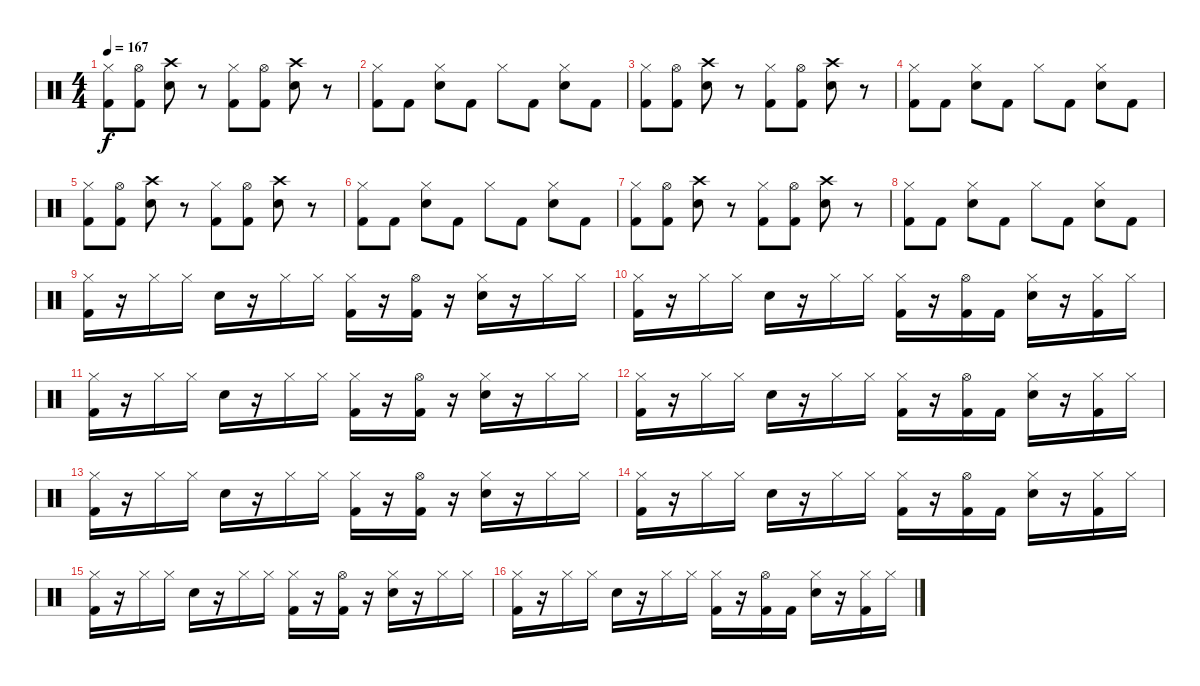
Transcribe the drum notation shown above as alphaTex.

\track "" {instrument percussion}
\staff {score}
\articulation defaults
\ts (4 4)
\tempo 167
\clef neutral
\ks c
("Hi-Hat (closed)" "Kick (hit) 2").8{dy f} ("Hi-Hat (open)" "Kick (hit) 2").8 ("Electric Snare (hit)" "Crash high (hit)").8 r.8 ("Hi-Hat (closed)" "Kick (hit) 2").8 ("Hi-Hat (open)" "Kick (hit) 2").8 ("Electric Snare (hit)" "Crash high (hit)").8 r.8 |
("Hi-Hat (closed)" "Kick (hit) 2").8 "Kick (hit) 2".8 ("Hi-Hat (closed)" "Electric Snare (hit)").8 "Kick (hit) 2".8 "Hi-Hat (closed)".8 "Kick (hit) 2".8 ("Hi-Hat (closed)" "Electric Snare (hit)").8 "Kick (hit) 2".8 |
("Hi-Hat (closed)" "Kick (hit) 2").8 ("Hi-Hat (open)" "Kick (hit) 2").8 ("Electric Snare (hit)" "Crash high (hit)").8 r.8 ("Hi-Hat (closed)" "Kick (hit) 2").8 ("Hi-Hat (open)" "Kick (hit) 2").8 ("Electric Snare (hit)" "Crash high (hit)").8 r.8 |
("Hi-Hat (closed)" "Kick (hit) 2").8 "Kick (hit) 2".8 ("Hi-Hat (closed)" "Electric Snare (hit)").8 "Kick (hit) 2".8 "Hi-Hat (closed)".8 "Kick (hit) 2".8 ("Hi-Hat (closed)" "Electric Snare (hit)").8 "Kick (hit) 2".8 |
("Hi-Hat (closed)" "Kick (hit) 2").8 ("Hi-Hat (open)" "Kick (hit) 2").8 ("Electric Snare (hit)" "Crash high (hit)").8 r.8 ("Hi-Hat (closed)" "Kick (hit) 2").8 ("Hi-Hat (open)" "Kick (hit) 2").8 ("Electric Snare (hit)" "Crash high (hit)").8 r.8 |
("Hi-Hat (closed)" "Kick (hit) 2").8 "Kick (hit) 2".8 ("Hi-Hat (closed)" "Electric Snare (hit)").8 "Kick (hit) 2".8 "Hi-Hat (closed)".8 "Kick (hit) 2".8 ("Hi-Hat (closed)" "Electric Snare (hit)").8 "Kick (hit) 2".8 |
("Hi-Hat (closed)" "Kick (hit) 2").8 ("Hi-Hat (open)" "Kick (hit) 2").8 ("Electric Snare (hit)" "Crash high (hit)").8 r.8 ("Hi-Hat (closed)" "Kick (hit) 2").8 ("Hi-Hat (open)" "Kick (hit) 2").8 ("Electric Snare (hit)" "Crash high (hit)").8 r.8 |
("Hi-Hat (closed)" "Kick (hit) 2").8 "Kick (hit) 2".8 ("Hi-Hat (closed)" "Electric Snare (hit)").8 "Kick (hit) 2".8 "Hi-Hat (closed)".8 "Kick (hit) 2".8 ("Hi-Hat (closed)" "Electric Snare (hit)").8 "Kick (hit) 2".8 |
("Hi-Hat (closed)" "Kick (hit) 2").16 r.16 "Hi-Hat (closed)".16 "Hi-Hat (closed)".16 "Electric Snare (hit)".16 r.16 "Hi-Hat (closed)".16 "Hi-Hat (closed)".16 ("Hi-Hat (closed)" "Kick (hit) 2").16 r.16 ("Hi-Hat (open)" "Kick (hit) 2").16 r.16 ("Hi-Hat (closed)" "Electric Snare (hit)").16 r.16 "Hi-Hat (closed)".16 "Hi-Hat (closed)".16 |
("Hi-Hat (closed)" "Kick (hit) 2").16 r.16 "Hi-Hat (closed)".16 "Hi-Hat (closed)".16 "Electric Snare (hit)".16 r.16 "Hi-Hat (closed)".16 "Hi-Hat (closed)".16 ("Hi-Hat (closed)" "Kick (hit) 2").16 r.16 ("Hi-Hat (open)" "Kick (hit) 2").16 "Kick (hit) 2".16 ("Hi-Hat (closed)" "Electric Snare (hit)").16 r.16 ("Hi-Hat (closed)" "Kick (hit) 2").16 "Hi-Hat (closed)".16 |
("Hi-Hat (closed)" "Kick (hit) 2").16 r.16 "Hi-Hat (closed)".16 "Hi-Hat (closed)".16 "Electric Snare (hit)".16 r.16 "Hi-Hat (closed)".16 "Hi-Hat (closed)".16 ("Hi-Hat (closed)" "Kick (hit) 2").16 r.16 ("Hi-Hat (open)" "Kick (hit) 2").16 r.16 ("Hi-Hat (closed)" "Electric Snare (hit)").16 r.16 "Hi-Hat (closed)".16 "Hi-Hat (closed)".16 |
("Hi-Hat (closed)" "Kick (hit) 2").16 r.16 "Hi-Hat (closed)".16 "Hi-Hat (closed)".16 "Electric Snare (hit)".16 r.16 "Hi-Hat (closed)".16 "Hi-Hat (closed)".16 ("Hi-Hat (closed)" "Kick (hit) 2").16 r.16 ("Hi-Hat (open)" "Kick (hit) 2").16 "Kick (hit) 2".16 ("Hi-Hat (closed)" "Electric Snare (hit)").16 r.16 ("Hi-Hat (closed)" "Kick (hit) 2").16 "Hi-Hat (closed)".16 |
("Hi-Hat (closed)" "Kick (hit) 2").16 r.16 "Hi-Hat (closed)".16 "Hi-Hat (closed)".16 "Electric Snare (hit)".16 r.16 "Hi-Hat (closed)".16 "Hi-Hat (closed)".16 ("Hi-Hat (closed)" "Kick (hit) 2").16 r.16 ("Hi-Hat (open)" "Kick (hit) 2").16 r.16 ("Hi-Hat (closed)" "Electric Snare (hit)").16 r.16 "Hi-Hat (closed)".16 "Hi-Hat (closed)".16 |
("Hi-Hat (closed)" "Kick (hit) 2").16 r.16 "Hi-Hat (closed)".16 "Hi-Hat (closed)".16 "Electric Snare (hit)".16 r.16 "Hi-Hat (closed)".16 "Hi-Hat (closed)".16 ("Hi-Hat (closed)" "Kick (hit) 2").16 r.16 ("Hi-Hat (open)" "Kick (hit) 2").16 "Kick (hit) 2".16 ("Hi-Hat (closed)" "Electric Snare (hit)").16 r.16 ("Hi-Hat (closed)" "Kick (hit) 2").16 "Hi-Hat (closed)".16 |
("Hi-Hat (closed)" "Kick (hit) 2").16 r.16 "Hi-Hat (closed)".16 "Hi-Hat (closed)".16 "Electric Snare (hit)".16 r.16 "Hi-Hat (closed)".16 "Hi-Hat (closed)".16 ("Hi-Hat (closed)" "Kick (hit) 2").16 r.16 ("Hi-Hat (open)" "Kick (hit) 2").16 r.16 ("Hi-Hat (closed)" "Electric Snare (hit)").16 r.16 "Hi-Hat (closed)".16 "Hi-Hat (closed)".16 |
("Hi-Hat (closed)" "Kick (hit) 2").16 r.16 "Hi-Hat (closed)".16 "Hi-Hat (closed)".16 "Electric Snare (hit)".16 r.16 "Hi-Hat (closed)".16 "Hi-Hat (closed)".16 ("Hi-Hat (closed)" "Kick (hit) 2").16 r.16 ("Hi-Hat (open)" "Kick (hit) 2").16 "Kick (hit) 2".16 ("Hi-Hat (closed)" "Electric Snare (hit)").16 r.16 ("Hi-Hat (closed)" "Kick (hit) 2").16 "Hi-Hat (closed)".16
